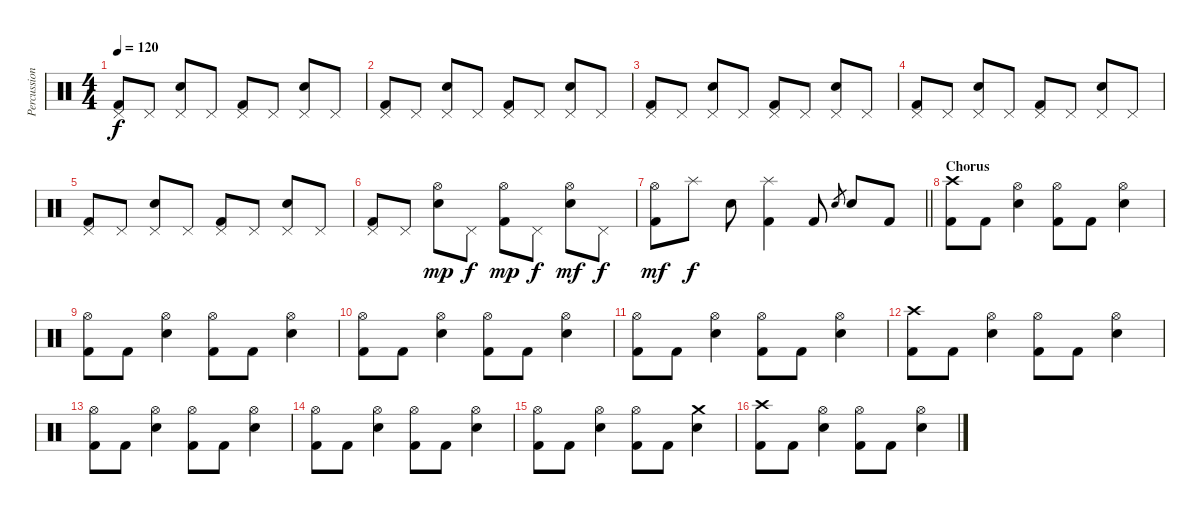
\track ("Percussion" "Percussion") {instrument percussion}
\staff {score}
\articulation defaults
\ts (4 4)
\tempo 120
\clef neutral
\ks c
("Pedal Hi-Hat (hit)" "Kick (hit) 2").8{dy f} "Pedal Hi-Hat (hit)".8 ("Pedal Hi-Hat (hit)" "Electric Snare (hit)").8 "Pedal Hi-Hat (hit)".8 ("Pedal Hi-Hat (hit)" "Kick (hit) 2").8 "Pedal Hi-Hat (hit)".8 ("Pedal Hi-Hat (hit)" "Electric Snare (hit)").8 "Pedal Hi-Hat (hit)".8 |
("Pedal Hi-Hat (hit)" "Kick (hit) 2").8 "Pedal Hi-Hat (hit)".8 ("Pedal Hi-Hat (hit)" "Electric Snare (hit)").8 "Pedal Hi-Hat (hit)".8 ("Pedal Hi-Hat (hit)" "Kick (hit) 2").8 "Pedal Hi-Hat (hit)".8 ("Pedal Hi-Hat (hit)" "Electric Snare (hit)").8 "Pedal Hi-Hat (hit)".8 |
("Pedal Hi-Hat (hit)" "Kick (hit) 2").8 "Pedal Hi-Hat (hit)".8 ("Pedal Hi-Hat (hit)" "Electric Snare (hit)").8 "Pedal Hi-Hat (hit)".8 ("Pedal Hi-Hat (hit)" "Kick (hit) 2").8 "Pedal Hi-Hat (hit)".8 ("Pedal Hi-Hat (hit)" "Electric Snare (hit)").8 "Pedal Hi-Hat (hit)".8 |
("Pedal Hi-Hat (hit)" "Kick (hit) 2").8 "Pedal Hi-Hat (hit)".8 ("Pedal Hi-Hat (hit)" "Electric Snare (hit)").8 "Pedal Hi-Hat (hit)".8 ("Pedal Hi-Hat (hit)" "Kick (hit) 2").8 "Pedal Hi-Hat (hit)".8 ("Pedal Hi-Hat (hit)" "Electric Snare (hit)").8 "Pedal Hi-Hat (hit)".8 |
("Pedal Hi-Hat (hit)" "Kick (hit) 2").8 "Pedal Hi-Hat (hit)".8 ("Pedal Hi-Hat (hit)" "Electric Snare (hit)").8 "Pedal Hi-Hat (hit)".8 ("Pedal Hi-Hat (hit)" "Kick (hit) 2").8 "Pedal Hi-Hat (hit)".8 ("Pedal Hi-Hat (hit)" "Electric Snare (hit)").8 "Pedal Hi-Hat (hit)".8 |
("Pedal Hi-Hat (hit)" "Kick (hit) 2").8 "Pedal Hi-Hat (hit)".8 ("Hi-Hat (open)" "Electric Snare (hit)").8{dy mp} "Pedal Hi-Hat (hit)".8{dy f} ("Hi-Hat (open)" "Kick (hit) 2").8{dy mp} "Pedal Hi-Hat (hit)".8{dy f} ("Hi-Hat (open)" "Electric Snare (hit)").8{dy mf} "Pedal Hi-Hat (hit)".8{dy f} |
\barLineRight lightlight
("Hi-Hat (open)" "Kick (hit) 2").8{dy mf} "Splash (hit)".8{dy f} "Electric Snare (hit)".8 ("Splash (hit)" "Kick (hit) 2").4 "Kick (hit) 2".8 "Electric Snare (hit)".8{gr} "Electric Snare (hit)".8 "Kick (hit) 2".8 |
\section ("" "Chorus")
("Crash high (hit)" "Kick (hit) 2").8 "Kick (hit) 2".8 ("Hi-Hat (open)" "Electric Snare (hit)").4 ("Hi-Hat (open)" "Kick (hit) 2").8 "Kick (hit) 2".8 ("Hi-Hat (open)" "Electric Snare (hit)").4 |
("Hi-Hat (open)" "Kick (hit) 2").8 "Kick (hit) 2".8 ("Hi-Hat (open)" "Electric Snare (hit)").4 ("Hi-Hat (open)" "Kick (hit) 2").8 "Kick (hit) 2".8 ("Hi-Hat (open)" "Electric Snare (hit)").4 |
("Hi-Hat (open)" "Kick (hit) 2").8 "Kick (hit) 2".8 ("Hi-Hat (open)" "Electric Snare (hit)").4 ("Hi-Hat (open)" "Kick (hit) 2").8 "Kick (hit) 2".8 ("Hi-Hat (open)" "Electric Snare (hit)").4 |
("Hi-Hat (open)" "Kick (hit) 2").8 "Kick (hit) 2".8 ("Hi-Hat (open)" "Electric Snare (hit)").4 ("Hi-Hat (open)" "Kick (hit) 2").8 "Kick (hit) 2".8 ("Hi-Hat (open)" "Electric Snare (hit)").4 |
("Crash high (hit)" "Kick (hit) 2").8 "Kick (hit) 2".8 ("Hi-Hat (open)" "Electric Snare (hit)").4 ("Hi-Hat (open)" "Kick (hit) 2").8 "Kick (hit) 2".8 ("Hi-Hat (open)" "Electric Snare (hit)").4 |
("Hi-Hat (open)" "Kick (hit) 2").8 "Kick (hit) 2".8 ("Hi-Hat (open)" "Electric Snare (hit)").4 ("Hi-Hat (open)" "Kick (hit) 2").8 "Kick (hit) 2".8 ("Hi-Hat (open)" "Electric Snare (hit)").4 |
("Hi-Hat (open)" "Kick (hit) 2").8 "Kick (hit) 2".8 ("Hi-Hat (open)" "Electric Snare (hit)").4 ("Hi-Hat (open)" "Kick (hit) 2").8 "Kick (hit) 2".8 ("Hi-Hat (open)" "Electric Snare (hit)").4 |
("Hi-Hat (open)" "Kick (hit) 2").8 "Kick (hit) 2".8 ("Hi-Hat (open)" "Electric Snare (hit)").4 ("Hi-Hat (open)" "Kick (hit) 2").8 "Kick (hit) 2".8 ("Crash medium (hit)" "Electric Snare (hit)").4 |
("Crash high (hit)" "Kick (hit) 2").8 "Kick (hit) 2".8 ("Hi-Hat (open)" "Electric Snare (hit)").4 ("Hi-Hat (open)" "Kick (hit) 2").8 "Kick (hit) 2".8 ("Hi-Hat (open)" "Electric Snare (hit)").4
